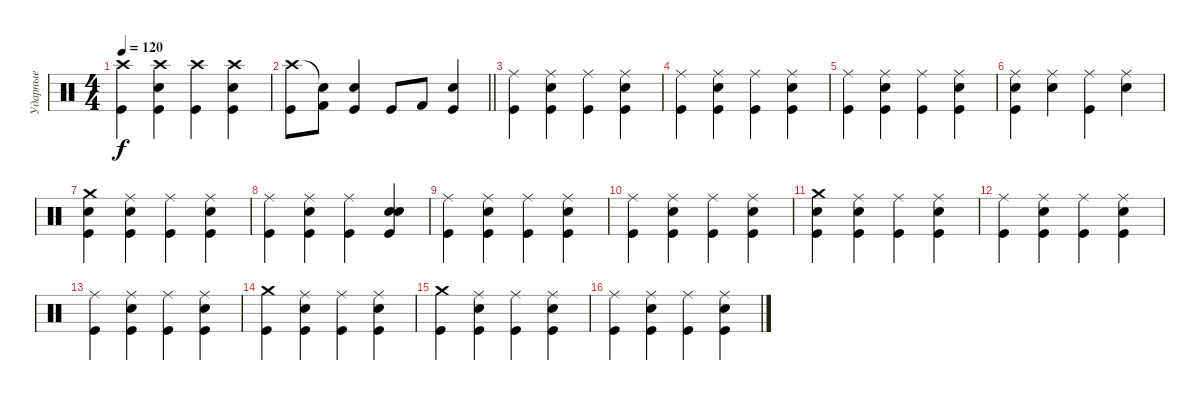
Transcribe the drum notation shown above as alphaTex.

\track ("Ударные" "Ударные") {instrument percussion}
\staff {score}
\articulation defaults
\ts (4 4)
\tempo 120
\clef neutral
\ks c
("Crash high (hit)" "Kick (hit)").4{dy f} ("Crash high (hit)" "Kick (hit)" "Snare (hit) 2").4 ("Crash high (hit)" "Kick (hit)").4 ("Crash high (hit)" "Kick (hit)" "Snare (hit) 2").4 |
\barLineRight lightlight
("Crash high (hit)" "Kick (hit)").8 ("Snare (hit)"{t} "Kick (hit) 2").8 ("Kick (hit)" "Snare (hit) 2").4 "Kick (hit)".8 "Kick (hit) 2".8 ("Kick (hit)" "Snare (hit) 2").4 |
("Ride (middle)" "Kick (hit)").4 ("Ride (middle)" "Kick (hit)" "Snare (hit) 2").4 ("Ride (middle)" "Kick (hit)").4 ("Ride (middle)" "Kick (hit)" "Snare (hit) 2").4 |
("Ride (middle)" "Kick (hit)").4 ("Ride (middle)" "Kick (hit)" "Snare (hit) 2").4 ("Ride (middle)" "Kick (hit)").4 ("Ride (middle)" "Kick (hit)" "Snare (hit) 2").4 |
("Ride (middle)" "Kick (hit)").4 ("Ride (middle)" "Kick (hit)" "Snare (hit) 2").4 ("Ride (middle)" "Kick (hit)").4 ("Ride (middle)" "Kick (hit)" "Snare (hit) 2").4 |
("Ride (middle)" "Kick (hit)" "Snare (hit) 2").4 ("Ride (middle)" "Snare (hit) 2").4 ("Ride (middle)" "Kick (hit)").4 ("Ride (middle)" "Snare (hit) 2").4 |
("Crash medium (hit)" "Snare (hit) 2" "Kick (hit)").4 ("Ride (middle)" "Kick (hit)" "Snare (hit) 2").4 ("Ride (middle)" "Kick (hit)").4 ("Ride (middle)" "Kick (hit)" "Snare (hit) 2").4 |
("Ride (middle)" "Kick (hit)").4 ("Ride (middle)" "Kick (hit)" "Snare (hit) 2").4 ("Ride (middle)" "Kick (hit)").4 ("Snare (hit)" "Kick (hit)" "Snare (hit) 2").4 |
("Ride (middle)" "Kick (hit)").4 ("Ride (middle)" "Kick (hit)" "Snare (hit) 2").4 ("Ride (middle)" "Kick (hit)").4 ("Ride (middle)" "Kick (hit)" "Snare (hit) 2").4 |
("Ride (middle)" "Kick (hit)").4 ("Ride (middle)" "Kick (hit)" "Snare (hit) 2").4 ("Ride (middle)" "Kick (hit)").4 ("Ride (middle)" "Kick (hit)" "Snare (hit) 2").4 |
("Crash medium (hit)" "Snare (hit) 2" "Kick (hit)").4 ("Ride (middle)" "Kick (hit)" "Snare (hit) 2").4 ("Ride (middle)" "Kick (hit)").4 ("Ride (middle)" "Kick (hit)" "Snare (hit) 2").4 |
("Ride (middle)" "Kick (hit)").4 ("Ride (middle)" "Kick (hit)" "Snare (hit) 2").4 ("Ride (middle)" "Kick (hit)").4 ("Ride (middle)" "Kick (hit)" "Snare (hit) 2").4 |
("Ride (middle)" "Kick (hit)").4 ("Ride (middle)" "Kick (hit)" "Snare (hit) 2").4 ("Ride (middle)" "Kick (hit)").4 ("Ride (middle)" "Kick (hit)" "Snare (hit) 2").4 |
("Crash medium (hit)" "Kick (hit)").4 ("Ride (middle)" "Kick (hit)" "Snare (hit) 2").4 ("Ride (middle)" "Kick (hit)").4 ("Ride (middle)" "Kick (hit)" "Snare (hit) 2").4 |
("Crash medium (hit)" "Kick (hit)").4 ("Ride (middle)" "Kick (hit)" "Snare (hit) 2").4 ("Ride (middle)" "Kick (hit)").4 ("Ride (middle)" "Kick (hit)" "Snare (hit) 2").4 |
("Ride (middle)" "Kick (hit)").4 ("Ride (middle)" "Kick (hit)" "Snare (hit) 2").4 ("Ride (middle)" "Kick (hit)").4 ("Ride (middle)" "Kick (hit)" "Snare (hit) 2").4
